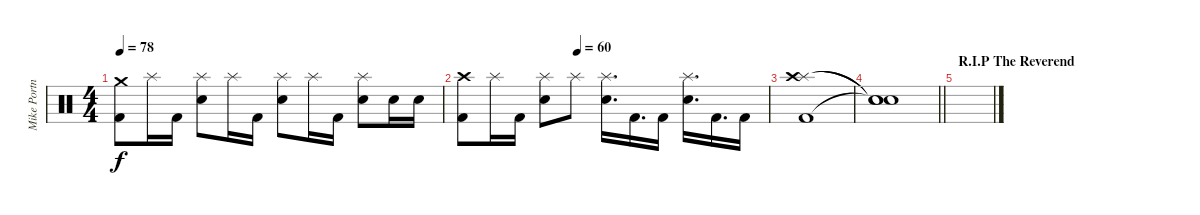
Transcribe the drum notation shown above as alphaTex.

\track ("Mike Portnoy" "Mike Portn") {instrument percussion}
\staff {score}
\articulation defaults
\ts (4 4)
\tempo 78
\clef neutral
\ks c
("Crash medium (hit)" "Kick (hit) 2").8{dy f} "Splash (hit)".16 "Kick (hit) 2".16 ("Splash (hit)" "Electric Snare (hit)").8 "Splash (hit)".16 "Kick (hit) 2".16 ("Splash (hit)" "Electric Snare (hit)").8 "Splash (hit)".16 "Kick (hit) 2".16 ("Splash (hit)" "Electric Snare (hit)").8 "Electric Snare (hit)".16 "Electric Snare (hit)".16 |
\tempo (60 0.375)
("Crash high (hit)" "Kick (hit) 2").8 "Splash (hit)".16 "Kick (hit) 2".16 ("Splash (hit)" "Electric Snare (hit)").8 "Splash (hit)".8 ("Splash (hit)" "Electric Snare (hit)").16{d} "Kick (hit) 2".16{d} "Kick (hit) 2".16 ("Splash (hit)" "Electric Snare (hit)").16{d} "Kick (hit) 2".16{d} "Kick (hit) 2".16 |
("Splash (hit)" "Crash high (hit)" "Kick (hit) 2").1 |
\barLineRight lightlight
("Snare (hit)"{t} "Snare (hit)"{t} "Snare (hit)"{t}).1 |
\section ("" "R.I.P The Reverend")
